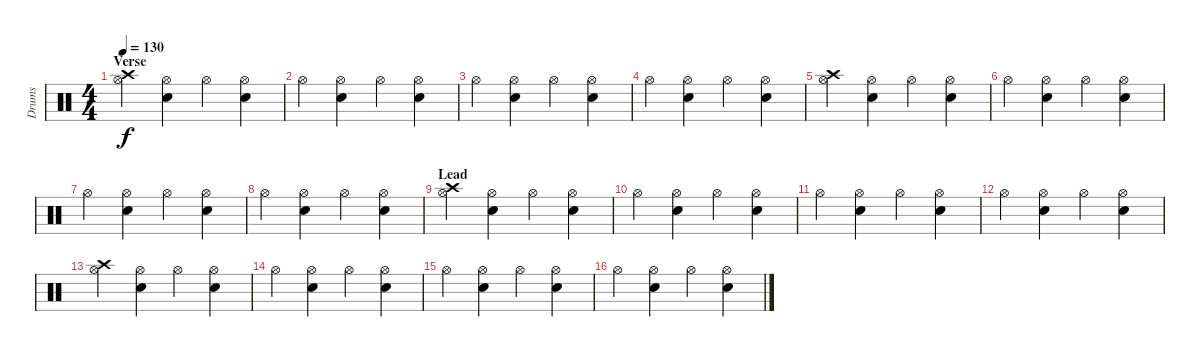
\track ("Drums" "Drums") {instrument percussion}
\staff {score}
\articulation defaults
\ts (4 4)
\section ("" "Verse")
\tempo 130
\clef neutral
\ks c
("Crash high (hit)" "Hi-Hat (open)").4{dy f} ("Hi-Hat (open)" "Electric Snare (hit)").4 "Hi-Hat (open)".4 ("Hi-Hat (open)" "Electric Snare (hit)").4 |
"Hi-Hat (open)".4 ("Hi-Hat (open)" "Electric Snare (hit)").4 "Hi-Hat (open)".4 ("Hi-Hat (open)" "Electric Snare (hit)").4 |
"Hi-Hat (open)".4 ("Hi-Hat (open)" "Electric Snare (hit)").4 "Hi-Hat (open)".4 ("Hi-Hat (open)" "Electric Snare (hit)").4 |
"Hi-Hat (open)".4 ("Hi-Hat (open)" "Electric Snare (hit)").4 "Hi-Hat (open)".4 ("Hi-Hat (open)" "Electric Snare (hit)").4 |
("Crash high (hit)" "Hi-Hat (open)").4 ("Hi-Hat (open)" "Electric Snare (hit)").4 "Hi-Hat (open)".4 ("Hi-Hat (open)" "Electric Snare (hit)").4 |
"Hi-Hat (open)".4 ("Hi-Hat (open)" "Electric Snare (hit)").4 "Hi-Hat (open)".4 ("Hi-Hat (open)" "Electric Snare (hit)").4 |
"Hi-Hat (open)".4 ("Hi-Hat (open)" "Electric Snare (hit)").4 "Hi-Hat (open)".4 ("Hi-Hat (open)" "Electric Snare (hit)").4 |
"Hi-Hat (open)".4 ("Hi-Hat (open)" "Electric Snare (hit)").4 "Hi-Hat (open)".4 ("Hi-Hat (open)" "Electric Snare (hit)").4 |
\section ("" "Lead")
("Crash high (hit)" "Hi-Hat (open)").4 ("Hi-Hat (open)" "Electric Snare (hit)").4 "Hi-Hat (open)".4 ("Hi-Hat (open)" "Electric Snare (hit)").4 |
"Hi-Hat (open)".4 ("Hi-Hat (open)" "Electric Snare (hit)").4 "Hi-Hat (open)".4 ("Hi-Hat (open)" "Electric Snare (hit)").4 |
"Hi-Hat (open)".4 ("Hi-Hat (open)" "Electric Snare (hit)").4 "Hi-Hat (open)".4 ("Hi-Hat (open)" "Electric Snare (hit)").4 |
"Hi-Hat (open)".4 ("Hi-Hat (open)" "Electric Snare (hit)").4 "Hi-Hat (open)".4 ("Hi-Hat (open)" "Electric Snare (hit)").4 |
("Crash high (hit)" "Hi-Hat (open)").4 ("Hi-Hat (open)" "Electric Snare (hit)").4 "Hi-Hat (open)".4 ("Hi-Hat (open)" "Electric Snare (hit)").4 |
"Hi-Hat (open)".4 ("Hi-Hat (open)" "Electric Snare (hit)").4 "Hi-Hat (open)".4 ("Hi-Hat (open)" "Electric Snare (hit)").4 |
"Hi-Hat (open)".4 ("Hi-Hat (open)" "Electric Snare (hit)").4 "Hi-Hat (open)".4 ("Hi-Hat (open)" "Electric Snare (hit)").4 |
"Hi-Hat (open)".4 ("Hi-Hat (open)" "Electric Snare (hit)").4 "Hi-Hat (open)".4 ("Hi-Hat (open)" "Electric Snare (hit)").4
